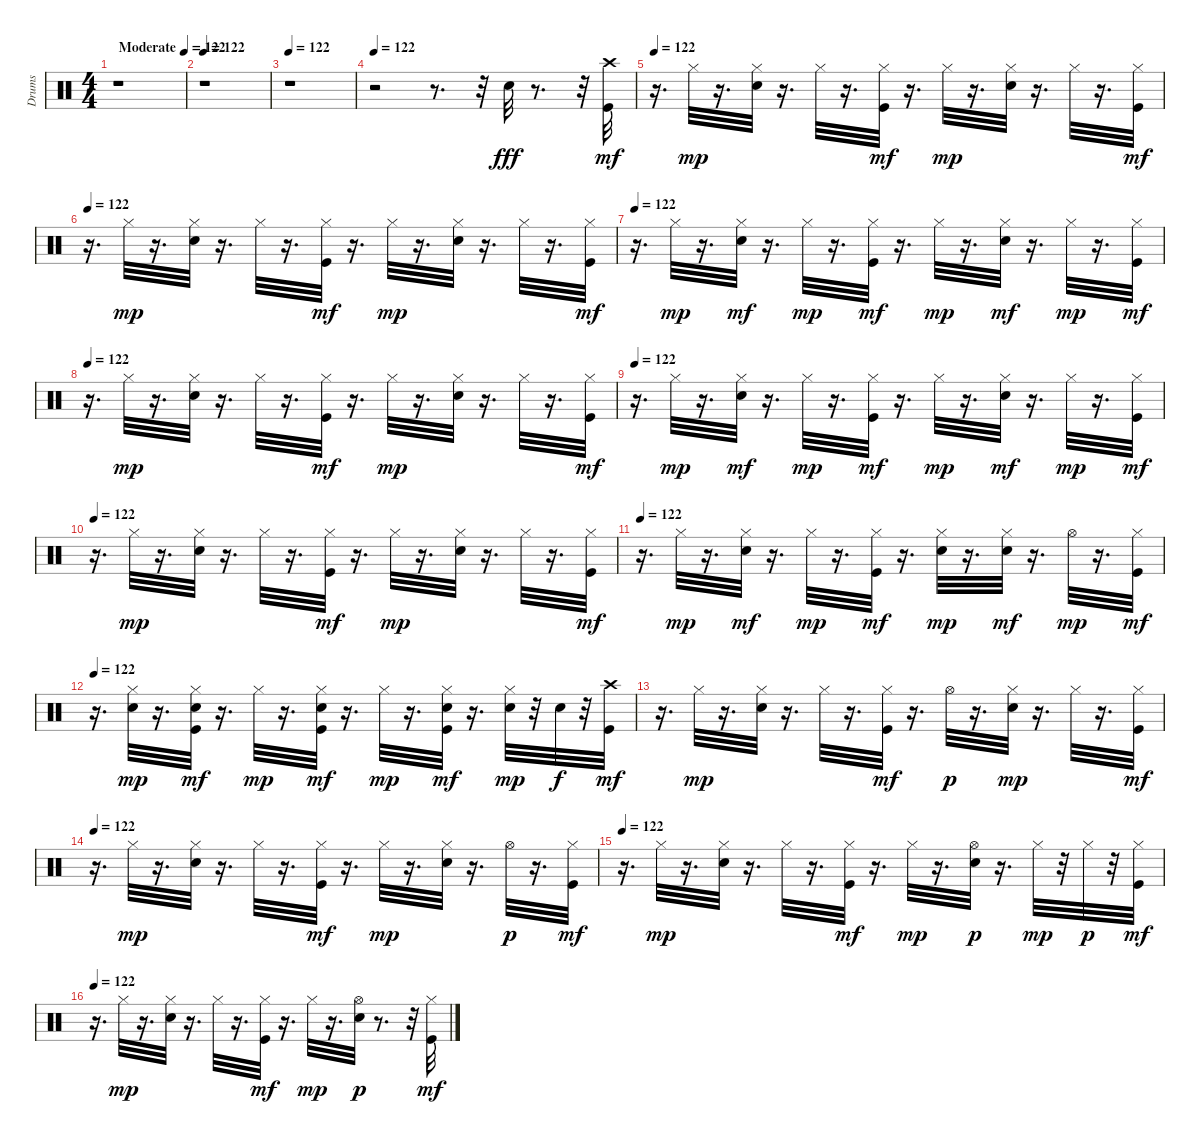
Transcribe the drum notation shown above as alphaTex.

\track ("Drums" "Drums") {instrument percussion}
\staff {score}
\articulation defaults
\ts (4 4)
\tempo (122 "Moderate")
\clef neutral
\ks c
r.1{dy fff} |
\tempo 122
r.1 |
\tempo 122
r.1 |
\tempo 122
r.2 r.8{d} r.32 "Snare (hit) 2".32 r.8{d} r.32 ("Kick (hit)" "Crash high (hit)").32{dy mf} |
\tempo 122
r.16{d} "Hi-Hat (closed)".32{dy mp} r.16{d} ("Snare (hit) 2" "Hi-Hat (closed)").32 r.16{d} "Hi-Hat (closed)".32 r.16{d} ("Kick (hit)" "Hi-Hat (closed)").32{dy mf} r.16{d} "Hi-Hat (closed)".32{dy mp} r.16{d} ("Snare (hit) 2" "Hi-Hat (closed)").32 r.16{d} "Hi-Hat (closed)".32 r.16{d} ("Kick (hit)" "Hi-Hat (closed)").32{dy mf} |
\tempo 122
r.16{d} "Hi-Hat (closed)".32{dy mp} r.16{d} ("Snare (hit) 2" "Hi-Hat (closed)").32 r.16{d} "Hi-Hat (closed)".32 r.16{d} ("Kick (hit)" "Hi-Hat (closed)").32{dy mf} r.16{d} "Hi-Hat (closed)".32{dy mp} r.16{d} ("Snare (hit) 2" "Hi-Hat (closed)").32 r.16{d} "Hi-Hat (closed)".32 r.16{d} ("Kick (hit)" "Hi-Hat (closed)").32{dy mf} |
\tempo 122
r.16{d} "Hi-Hat (closed)".32{dy mp} r.16{d} ("Snare (hit) 2" "Hi-Hat (closed)").32{dy mf} r.16{d} "Hi-Hat (closed)".32{dy mp} r.16{d} ("Kick (hit)" "Hi-Hat (closed)").32{dy mf} r.16{d} "Hi-Hat (closed)".32{dy mp} r.16{d} ("Snare (hit) 2" "Hi-Hat (closed)").32{dy mf} r.16{d} "Hi-Hat (closed)".32{dy mp} r.16{d} ("Kick (hit)" "Hi-Hat (closed)").32{dy mf} |
\tempo 122
r.16{d} "Hi-Hat (closed)".32{dy mp} r.16{d} ("Snare (hit) 2" "Hi-Hat (closed)").32 r.16{d} "Hi-Hat (closed)".32 r.16{d} ("Kick (hit)" "Hi-Hat (closed)").32{dy mf} r.16{d} "Hi-Hat (closed)".32{dy mp} r.16{d} ("Snare (hit) 2" "Hi-Hat (closed)").32 r.16{d} "Hi-Hat (closed)".32 r.16{d} ("Kick (hit)" "Hi-Hat (closed)").32{dy mf} |
\tempo 122
r.16{d} "Hi-Hat (closed)".32{dy mp} r.16{d} ("Snare (hit) 2" "Hi-Hat (closed)").32{dy mf} r.16{d} "Hi-Hat (closed)".32{dy mp} r.16{d} ("Kick (hit)" "Hi-Hat (closed)").32{dy mf} r.16{d} "Hi-Hat (closed)".32{dy mp} r.16{d} ("Snare (hit) 2" "Hi-Hat (closed)").32{dy mf} r.16{d} "Hi-Hat (closed)".32{dy mp} r.16{d} ("Kick (hit)" "Hi-Hat (closed)").32{dy mf} |
\tempo 122
r.16{d} "Hi-Hat (closed)".32{dy mp} r.16{d} ("Snare (hit) 2" "Hi-Hat (closed)").32 r.16{d} "Hi-Hat (closed)".32 r.16{d} ("Kick (hit)" "Hi-Hat (closed)").32{dy mf} r.16{d} "Hi-Hat (closed)".32{dy mp} r.16{d} ("Snare (hit) 2" "Hi-Hat (closed)").32 r.16{d} "Hi-Hat (closed)".32 r.16{d} ("Kick (hit)" "Hi-Hat (closed)").32{dy mf} |
\tempo 122
r.16{d} "Hi-Hat (closed)".32{dy mp} r.16{d} ("Snare (hit) 2" "Hi-Hat (closed)").32{dy mf} r.16{d} "Hi-Hat (closed)".32{dy mp} r.16{d} ("Kick (hit)" "Hi-Hat (closed)").32{dy mf} r.16{d} ("Snare (hit) 2" "Hi-Hat (closed)").32{dy mp} r.16{d} ("Snare (hit) 2" "Hi-Hat (closed)").32{dy mf} r.16{d} "Hi-Hat (open)".32{dy mp} r.16{d} ("Kick (hit)" "Hi-Hat (closed)").32{dy mf} |
\tempo 122
r.16{d} ("Snare (hit) 2" "Hi-Hat (closed)").32{dy mp} r.16{d} ("Kick (hit)" "Snare (hit) 2" "Hi-Hat (closed)").32{dy mf} r.16{d} "Hi-Hat (closed)".32{dy mp} r.16{d} ("Kick (hit)" "Snare (hit) 2" "Hi-Hat (closed)").32{dy mf} r.16{d} "Hi-Hat (closed)".32{dy mp} r.16{d} ("Kick (hit)" "Snare (hit) 2" "Hi-Hat (closed)").32{dy mf} r.16{d} ("Snare (hit) 2" "Hi-Hat (closed)").32{dy mp} r.32 "Snare (hit) 2".32{dy f} r.32 ("Kick (hit)" "Crash high (hit)").32{dy mf} |
r.16{d} "Hi-Hat (closed)".32{dy mp} r.16{d} ("Snare (hit) 2" "Hi-Hat (closed)").32 r.16{d} "Hi-Hat (closed)".32 r.16{d} ("Kick (hit)" "Hi-Hat (closed)").32{dy mf} r.16{d} "Hi-Hat (open)".32{dy p} r.16{d} ("Snare (hit) 2" "Hi-Hat (closed)").32{dy mp} r.16{d} "Hi-Hat (closed)".32 r.16{d} ("Kick (hit)" "Hi-Hat (closed)").32{dy mf} |
\tempo 122
r.16{d} "Hi-Hat (closed)".32{dy mp} r.16{d} ("Snare (hit) 2" "Hi-Hat (closed)").32 r.16{d} "Hi-Hat (closed)".32 r.16{d} ("Kick (hit)" "Hi-Hat (closed)").32{dy mf} r.16{d} "Hi-Hat (closed)".32{dy mp} r.16{d} ("Snare (hit) 2" "Hi-Hat (closed)").32 r.16{d} "Hi-Hat (open)".32{dy p} r.16{d} ("Kick (hit)" "Hi-Hat (closed)").32{dy mf} |
\tempo 122
r.16{d} "Hi-Hat (closed)".32{dy mp} r.16{d} ("Snare (hit) 2" "Hi-Hat (closed)").32 r.16{d} "Hi-Hat (closed)".32 r.16{d} ("Kick (hit)" "Hi-Hat (closed)").32{dy mf} r.16{d} "Hi-Hat (closed)".32{dy mp} r.16{d} ("Snare (hit) 2" "Hi-Hat (open)").32{dy p} r.16{d} "Hi-Hat (closed)".32{dy mp} r.32 "Hi-Hat (closed)".32{dy p} r.32 ("Kick (hit)" "Hi-Hat (closed)").32{dy mf} |
\tempo 122
r.16{d} "Hi-Hat (closed)".32{dy mp} r.16{d} ("Snare (hit) 2" "Hi-Hat (closed)").32 r.16{d} "Hi-Hat (closed)".32 r.16{d} ("Kick (hit)" "Hi-Hat (closed)").32{dy mf} r.16{d} "Hi-Hat (closed)".32{dy mp} r.16{d} ("Snare (hit) 2" "Hi-Hat (open)").32{dy p} r.8{d} r.32 ("Kick (hit)" "Hi-Hat (closed)").32{dy mf}
